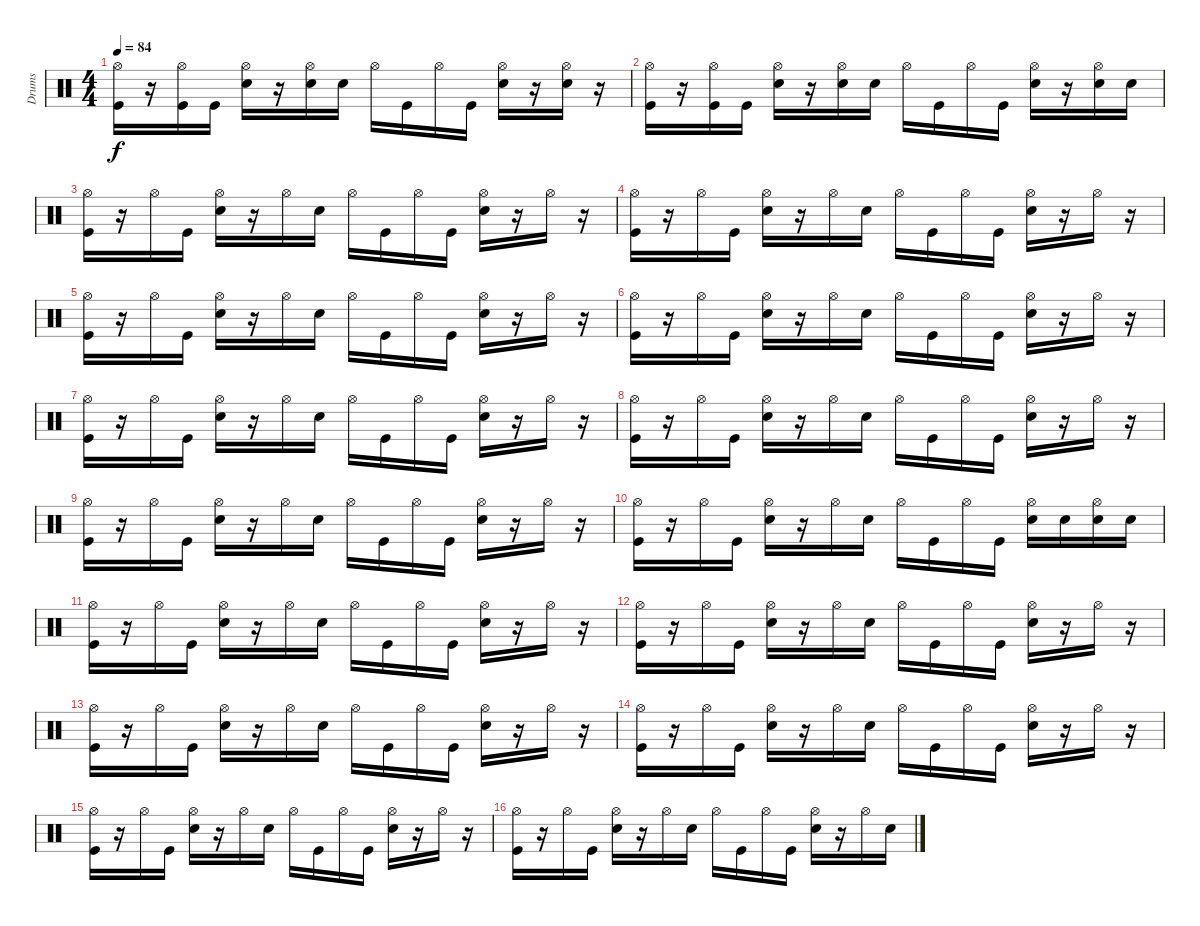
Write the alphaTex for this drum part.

\track ("Drums" "Drums") {instrument percussion}
\staff {score}
\articulation defaults
\ts (4 4)
\tempo 84
\clef neutral
\ks c
("Hi-Hat (open)" "Kick (hit)").16{dy f} r.16 ("Hi-Hat (open)" "Kick (hit)").16 "Kick (hit)".16 ("Hi-Hat (open)" "Snare (hit) 2").16 r.16 ("Hi-Hat (open)" "Snare (hit) 2").16 "Snare (hit) 2".16 "Hi-Hat (open)".16 "Kick (hit)".16 "Hi-Hat (open)".16 "Kick (hit)".16 ("Hi-Hat (open)" "Snare (hit) 2").16 r.16 ("Hi-Hat (open)" "Snare (hit) 2").16 r.16 |
("Hi-Hat (open)" "Kick (hit)").16 r.16 ("Hi-Hat (open)" "Kick (hit)").16 "Kick (hit)".16 ("Hi-Hat (open)" "Snare (hit) 2").16 r.16 ("Hi-Hat (open)" "Snare (hit) 2").16 "Snare (hit) 2".16 "Hi-Hat (open)".16 "Kick (hit)".16 "Hi-Hat (open)".16 "Kick (hit)".16 ("Hi-Hat (open)" "Snare (hit) 2").16 r.16 ("Hi-Hat (open)" "Snare (hit) 2").16 "Snare (hit) 2".16 |
("Hi-Hat (open)" "Kick (hit)").16 r.16 "Hi-Hat (open)".16 "Kick (hit)".16 ("Hi-Hat (open)" "Snare (hit) 2").16 r.16 "Hi-Hat (open)".16 "Snare (hit) 2".16 "Hi-Hat (open)".16 "Kick (hit)".16 "Hi-Hat (open)".16 "Kick (hit)".16 ("Hi-Hat (open)" "Snare (hit) 2").16 r.16 "Hi-Hat (open)".16 r.16 |
("Hi-Hat (open)" "Kick (hit)").16 r.16 "Hi-Hat (open)".16 "Kick (hit)".16 ("Hi-Hat (open)" "Snare (hit) 2").16 r.16 "Hi-Hat (open)".16 "Snare (hit) 2".16 "Hi-Hat (open)".16 "Kick (hit)".16 "Hi-Hat (open)".16 "Kick (hit)".16 ("Hi-Hat (open)" "Snare (hit) 2").16 r.16 "Hi-Hat (open)".16 r.16 |
("Hi-Hat (open)" "Kick (hit)").16 r.16 "Hi-Hat (open)".16 "Kick (hit)".16 ("Hi-Hat (open)" "Snare (hit) 2").16 r.16 "Hi-Hat (open)".16 "Snare (hit) 2".16 "Hi-Hat (open)".16 "Kick (hit)".16 "Hi-Hat (open)".16 "Kick (hit)".16 ("Hi-Hat (open)" "Snare (hit) 2").16 r.16 "Hi-Hat (open)".16 r.16 |
("Hi-Hat (open)" "Kick (hit)").16 r.16 "Hi-Hat (open)".16 "Kick (hit)".16 ("Hi-Hat (open)" "Snare (hit) 2").16 r.16 "Hi-Hat (open)".16 "Snare (hit) 2".16 "Hi-Hat (open)".16 "Kick (hit)".16 "Hi-Hat (open)".16 "Kick (hit)".16 ("Hi-Hat (open)" "Snare (hit) 2").16 r.16 "Hi-Hat (open)".16 r.16 |
("Hi-Hat (open)" "Kick (hit)").16 r.16 "Hi-Hat (open)".16 "Kick (hit)".16 ("Hi-Hat (open)" "Snare (hit) 2").16 r.16 "Hi-Hat (open)".16 "Snare (hit) 2".16 "Hi-Hat (open)".16 "Kick (hit)".16 "Hi-Hat (open)".16 "Kick (hit)".16 ("Hi-Hat (open)" "Snare (hit) 2").16 r.16 "Hi-Hat (open)".16 r.16 |
("Hi-Hat (open)" "Kick (hit)").16 r.16 "Hi-Hat (open)".16 "Kick (hit)".16 ("Hi-Hat (open)" "Snare (hit) 2").16 r.16 "Hi-Hat (open)".16 "Snare (hit) 2".16 "Hi-Hat (open)".16 "Kick (hit)".16 "Hi-Hat (open)".16 "Kick (hit)".16 ("Hi-Hat (open)" "Snare (hit) 2").16 r.16 "Hi-Hat (open)".16 r.16 |
("Hi-Hat (open)" "Kick (hit)").16 r.16 "Hi-Hat (open)".16 "Kick (hit)".16 ("Hi-Hat (open)" "Snare (hit) 2").16 r.16 "Hi-Hat (open)".16 "Snare (hit) 2".16 "Hi-Hat (open)".16 "Kick (hit)".16 "Hi-Hat (open)".16 "Kick (hit)".16 ("Hi-Hat (open)" "Snare (hit) 2").16 r.16 "Hi-Hat (open)".16 r.16 |
("Hi-Hat (open)" "Kick (hit)").16 r.16 "Hi-Hat (open)".16 "Kick (hit)".16 ("Hi-Hat (open)" "Snare (hit) 2").16 r.16 "Hi-Hat (open)".16 "Snare (hit) 2".16 "Hi-Hat (open)".16 "Kick (hit)".16 "Hi-Hat (open)".16 "Kick (hit)".16 ("Hi-Hat (open)" "Snare (hit) 2").16 "Snare (hit) 2".16 ("Hi-Hat (open)" "Snare (hit) 2").16 "Snare (hit) 2".16 |
("Hi-Hat (open)" "Kick (hit)").16 r.16 "Hi-Hat (open)".16 "Kick (hit)".16 ("Hi-Hat (open)" "Snare (hit) 2").16 r.16 "Hi-Hat (open)".16 "Snare (hit) 2".16 "Hi-Hat (open)".16 "Kick (hit)".16 "Hi-Hat (open)".16 "Kick (hit)".16 ("Hi-Hat (open)" "Snare (hit) 2").16 r.16 "Hi-Hat (open)".16 r.16 |
("Hi-Hat (open)" "Kick (hit)").16 r.16 "Hi-Hat (open)".16 "Kick (hit)".16 ("Hi-Hat (open)" "Snare (hit) 2").16 r.16 "Hi-Hat (open)".16 "Snare (hit) 2".16 "Hi-Hat (open)".16 "Kick (hit)".16 "Hi-Hat (open)".16 "Kick (hit)".16 ("Hi-Hat (open)" "Snare (hit) 2").16 r.16 "Hi-Hat (open)".16 r.16 |
("Hi-Hat (open)" "Kick (hit)").16 r.16 "Hi-Hat (open)".16 "Kick (hit)".16 ("Hi-Hat (open)" "Snare (hit) 2").16 r.16 "Hi-Hat (open)".16 "Snare (hit) 2".16 "Hi-Hat (open)".16 "Kick (hit)".16 "Hi-Hat (open)".16 "Kick (hit)".16 ("Hi-Hat (open)" "Snare (hit) 2").16 r.16 "Hi-Hat (open)".16 r.16 |
("Hi-Hat (open)" "Kick (hit)").16 r.16 "Hi-Hat (open)".16 "Kick (hit)".16 ("Hi-Hat (open)" "Snare (hit) 2").16 r.16 "Hi-Hat (open)".16 "Snare (hit) 2".16 "Hi-Hat (open)".16 "Kick (hit)".16 "Hi-Hat (open)".16 "Kick (hit)".16 ("Hi-Hat (open)" "Snare (hit) 2").16 r.16 "Hi-Hat (open)".16 r.16 |
("Hi-Hat (open)" "Kick (hit)").16 r.16 "Hi-Hat (open)".16 "Kick (hit)".16 ("Hi-Hat (open)" "Snare (hit) 2").16 r.16 "Hi-Hat (open)".16 "Snare (hit) 2".16 "Hi-Hat (open)".16 "Kick (hit)".16 "Hi-Hat (open)".16 "Kick (hit)".16 ("Hi-Hat (open)" "Snare (hit) 2").16 r.16 "Hi-Hat (open)".16 r.16 |
("Hi-Hat (open)" "Kick (hit)").16 r.16 "Hi-Hat (open)".16 "Kick (hit)".16 ("Hi-Hat (open)" "Snare (hit) 2").16 r.16 "Hi-Hat (open)".16 "Snare (hit) 2".16 "Hi-Hat (open)".16 "Kick (hit)".16 "Hi-Hat (open)".16 "Kick (hit)".16 ("Hi-Hat (open)" "Snare (hit) 2").16 r.16 "Hi-Hat (open)".16 "Snare (hit) 2".16
